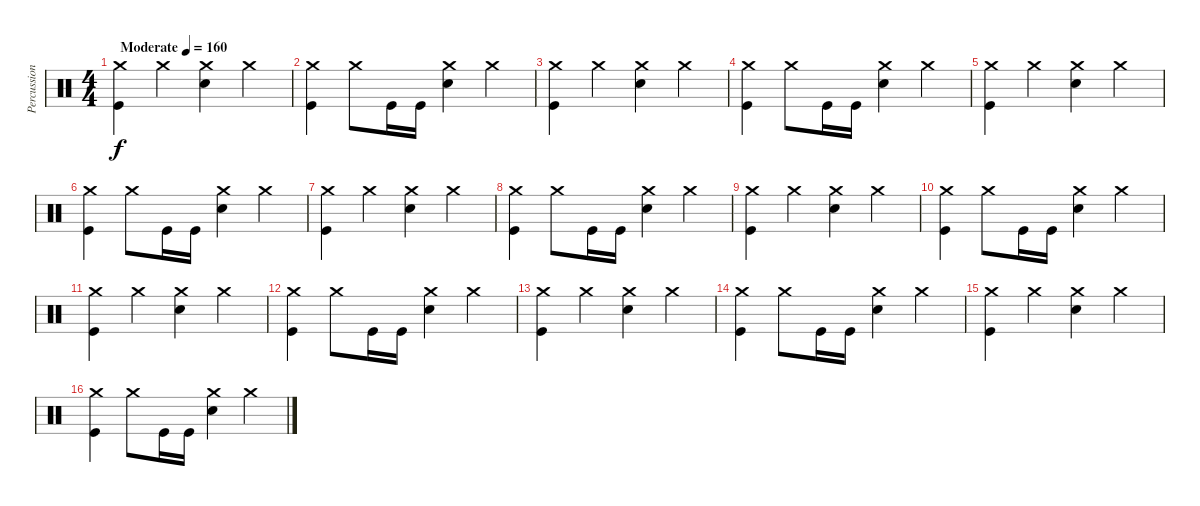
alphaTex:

\track ("Percussion" "Percussion") {instrument percussion}
\staff {score}
\articulation defaults
\ts (4 4)
\tempo (160 "Moderate")
\clef neutral
\ks c
("Crash medium (hit)" "Kick (hit)").4{dy f} "Crash medium (hit)".4 ("Crash medium (hit)" "Snare (hit) 2").4 "Crash medium (hit)".4 |
("Crash medium (hit)" "Kick (hit)").4 "Crash medium (hit)".8 "Kick (hit)".16 "Kick (hit)".16 ("Crash medium (hit)" "Snare (hit) 2").4 "Crash medium (hit)".4 |
("Crash medium (hit)" "Kick (hit)").4 "Crash medium (hit)".4 ("Crash medium (hit)" "Snare (hit) 2").4 "Crash medium (hit)".4 |
("Crash medium (hit)" "Kick (hit)").4 "Crash medium (hit)".8 "Kick (hit)".16 "Kick (hit)".16 ("Crash medium (hit)" "Snare (hit) 2").4 "Crash medium (hit)".4 |
("Crash medium (hit)" "Kick (hit)").4 "Crash medium (hit)".4 ("Crash medium (hit)" "Snare (hit) 2").4 "Crash medium (hit)".4 |
("Crash medium (hit)" "Kick (hit)").4 "Crash medium (hit)".8 "Kick (hit)".16 "Kick (hit)".16 ("Crash medium (hit)" "Snare (hit) 2").4 "Crash medium (hit)".4 |
("Crash medium (hit)" "Kick (hit)").4 "Crash medium (hit)".4 ("Crash medium (hit)" "Snare (hit) 2").4 "Crash medium (hit)".4 |
("Crash medium (hit)" "Kick (hit)").4 "Crash medium (hit)".8 "Kick (hit)".16 "Kick (hit)".16 ("Crash medium (hit)" "Snare (hit) 2").4 "Crash medium (hit)".4 |
("Crash medium (hit)" "Kick (hit)").4 "Crash medium (hit)".4 ("Crash medium (hit)" "Snare (hit) 2").4 "Crash medium (hit)".4 |
("Crash medium (hit)" "Kick (hit)").4 "Crash medium (hit)".8 "Kick (hit)".16 "Kick (hit)".16 ("Crash medium (hit)" "Snare (hit) 2").4 "Crash medium (hit)".4 |
("Crash medium (hit)" "Kick (hit)").4 "Crash medium (hit)".4 ("Crash medium (hit)" "Snare (hit) 2").4 "Crash medium (hit)".4 |
("Crash medium (hit)" "Kick (hit)").4 "Crash medium (hit)".8 "Kick (hit)".16 "Kick (hit)".16 ("Crash medium (hit)" "Snare (hit) 2").4 "Crash medium (hit)".4 |
("Crash medium (hit)" "Kick (hit)").4 "Crash medium (hit)".4 ("Crash medium (hit)" "Snare (hit) 2").4 "Crash medium (hit)".4 |
("Crash medium (hit)" "Kick (hit)").4 "Crash medium (hit)".8 "Kick (hit)".16 "Kick (hit)".16 ("Crash medium (hit)" "Snare (hit) 2").4 "Crash medium (hit)".4 |
("Crash medium (hit)" "Kick (hit)").4 "Crash medium (hit)".4 ("Crash medium (hit)" "Snare (hit) 2").4 "Crash medium (hit)".4 |
("Crash medium (hit)" "Kick (hit)").4 "Crash medium (hit)".8 "Kick (hit)".16 "Kick (hit)".16 ("Crash medium (hit)" "Snare (hit) 2").4 "Crash medium (hit)".4
